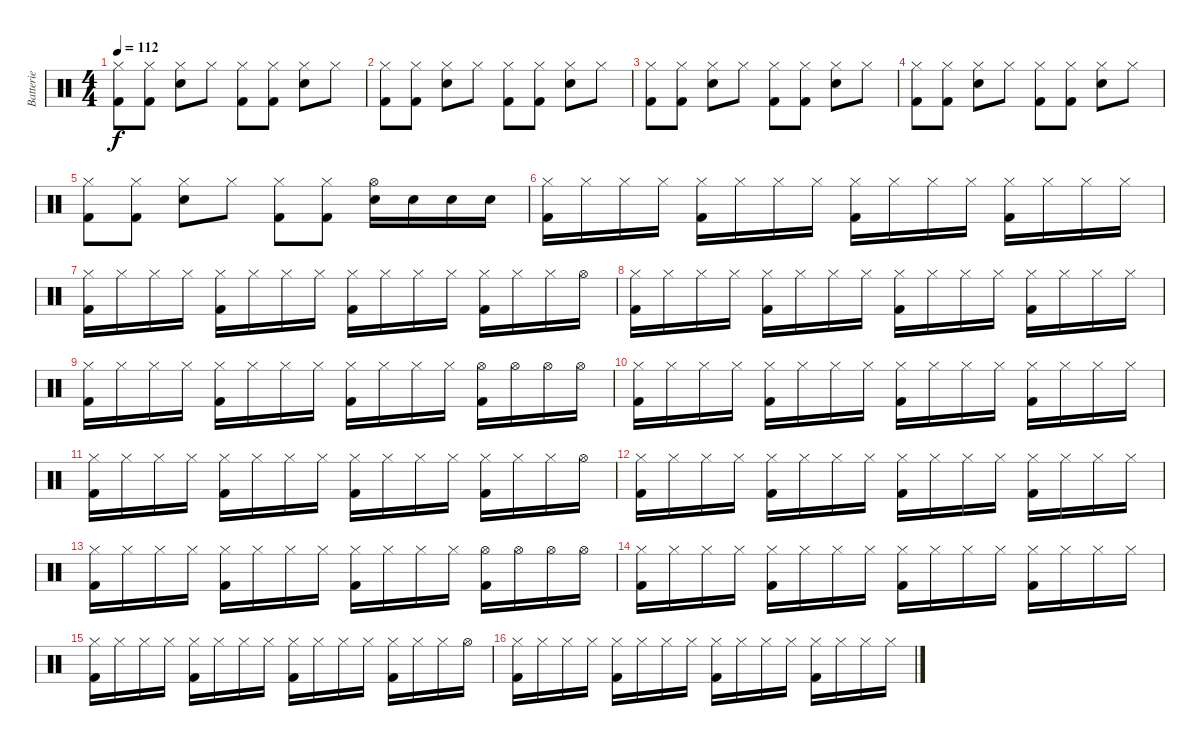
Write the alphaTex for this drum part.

\track ("Batterie" "Batterie") {instrument percussion}
\staff {score}
\articulation defaults
\ts (4 4)
\tempo 112
\clef neutral
\ks c
("Kick (hit) 2" "Hi-Hat (closed)").8{dy f} ("Kick (hit) 2" "Hi-Hat (closed)").8 ("Electric Snare (hit)" "Hi-Hat (closed)").8 "Hi-Hat (closed)".8 ("Kick (hit) 2" "Hi-Hat (closed)").8 ("Kick (hit) 2" "Hi-Hat (closed)").8 ("Electric Snare (hit)" "Hi-Hat (closed)").8 "Hi-Hat (closed)".8 |
("Kick (hit) 2" "Hi-Hat (closed)").8 ("Kick (hit) 2" "Hi-Hat (closed)").8 ("Electric Snare (hit)" "Hi-Hat (closed)").8 "Hi-Hat (closed)".8 ("Kick (hit) 2" "Hi-Hat (closed)").8 ("Kick (hit) 2" "Hi-Hat (closed)").8 ("Electric Snare (hit)" "Hi-Hat (closed)").8 "Hi-Hat (closed)".8 |
("Kick (hit) 2" "Hi-Hat (closed)").8 ("Kick (hit) 2" "Hi-Hat (closed)").8 ("Electric Snare (hit)" "Hi-Hat (closed)").8 "Hi-Hat (closed)".8 ("Kick (hit) 2" "Hi-Hat (closed)").8 ("Kick (hit) 2" "Hi-Hat (closed)").8 ("Electric Snare (hit)" "Hi-Hat (closed)").8 "Hi-Hat (closed)".8 |
("Kick (hit) 2" "Hi-Hat (closed)").8 ("Kick (hit) 2" "Hi-Hat (closed)").8 ("Electric Snare (hit)" "Hi-Hat (closed)").8 "Hi-Hat (closed)".8 ("Kick (hit) 2" "Hi-Hat (closed)").8 ("Kick (hit) 2" "Hi-Hat (closed)").8 ("Electric Snare (hit)" "Hi-Hat (closed)").8 "Hi-Hat (closed)".8 |
("Kick (hit) 2" "Hi-Hat (closed)").8 ("Kick (hit) 2" "Hi-Hat (closed)").8 ("Electric Snare (hit)" "Hi-Hat (closed)").8 "Hi-Hat (closed)".8 ("Kick (hit) 2" "Hi-Hat (closed)").8 ("Kick (hit) 2" "Hi-Hat (closed)").8 ("Electric Snare (hit)" "Hi-Hat (open)").16 "Electric Snare (hit)".16 "Electric Snare (hit)".16 "Electric Snare (hit)".16 |
("Kick (hit) 2" "Hi-Hat (closed)").16 "Hi-Hat (closed)".16 "Hi-Hat (closed)".16 "Hi-Hat (closed)".16 ("Kick (hit) 2" "Hi-Hat (closed)").16 "Hi-Hat (closed)".16 "Hi-Hat (closed)".16 "Hi-Hat (closed)".16 ("Kick (hit) 2" "Hi-Hat (closed)").16 "Hi-Hat (closed)".16 "Hi-Hat (closed)".16 "Hi-Hat (closed)".16 ("Kick (hit) 2" "Hi-Hat (closed)").16 "Hi-Hat (closed)".16 "Hi-Hat (closed)".16 "Hi-Hat (closed)".16 |
("Kick (hit) 2" "Hi-Hat (closed)").16 "Hi-Hat (closed)".16 "Hi-Hat (closed)".16 "Hi-Hat (closed)".16 ("Kick (hit) 2" "Hi-Hat (closed)").16 "Hi-Hat (closed)".16 "Hi-Hat (closed)".16 "Hi-Hat (closed)".16 ("Kick (hit) 2" "Hi-Hat (closed)").16 "Hi-Hat (closed)".16 "Hi-Hat (closed)".16 "Hi-Hat (closed)".16 ("Kick (hit) 2" "Hi-Hat (closed)").16 "Hi-Hat (closed)".16 "Hi-Hat (closed)".16 "Hi-Hat (open)".16 |
("Kick (hit) 2" "Hi-Hat (closed)").16 "Hi-Hat (closed)".16 "Hi-Hat (closed)".16 "Hi-Hat (closed)".16 ("Kick (hit) 2" "Hi-Hat (closed)").16 "Hi-Hat (closed)".16 "Hi-Hat (closed)".16 "Hi-Hat (closed)".16 ("Kick (hit) 2" "Hi-Hat (closed)").16 "Hi-Hat (closed)".16 "Hi-Hat (closed)".16 "Hi-Hat (closed)".16 ("Kick (hit) 2" "Hi-Hat (closed)").16 "Hi-Hat (closed)".16 "Hi-Hat (closed)".16 "Hi-Hat (closed)".16 |
("Kick (hit) 2" "Hi-Hat (closed)").16 "Hi-Hat (closed)".16 "Hi-Hat (closed)".16 "Hi-Hat (closed)".16 ("Kick (hit) 2" "Hi-Hat (closed)").16 "Hi-Hat (closed)".16 "Hi-Hat (closed)".16 "Hi-Hat (closed)".16 ("Kick (hit) 2" "Hi-Hat (closed)").16 "Hi-Hat (closed)".16 "Hi-Hat (closed)".16 "Hi-Hat (closed)".16 ("Kick (hit) 2" "Hi-Hat (open)").16 "Hi-Hat (open)".16 "Hi-Hat (open)".16 "Hi-Hat (open)".16 |
("Kick (hit) 2" "Hi-Hat (closed)").16 "Hi-Hat (closed)".16 "Hi-Hat (closed)".16 "Hi-Hat (closed)".16 ("Kick (hit) 2" "Hi-Hat (closed)").16 "Hi-Hat (closed)".16 "Hi-Hat (closed)".16 "Hi-Hat (closed)".16 ("Kick (hit) 2" "Hi-Hat (closed)").16 "Hi-Hat (closed)".16 "Hi-Hat (closed)".16 "Hi-Hat (closed)".16 ("Kick (hit) 2" "Hi-Hat (closed)").16 "Hi-Hat (closed)".16 "Hi-Hat (closed)".16 "Hi-Hat (closed)".16 |
("Kick (hit) 2" "Hi-Hat (closed)").16 "Hi-Hat (closed)".16 "Hi-Hat (closed)".16 "Hi-Hat (closed)".16 ("Kick (hit) 2" "Hi-Hat (closed)").16 "Hi-Hat (closed)".16 "Hi-Hat (closed)".16 "Hi-Hat (closed)".16 ("Kick (hit) 2" "Hi-Hat (closed)").16 "Hi-Hat (closed)".16 "Hi-Hat (closed)".16 "Hi-Hat (closed)".16 ("Kick (hit) 2" "Hi-Hat (closed)").16 "Hi-Hat (closed)".16 "Hi-Hat (closed)".16 "Hi-Hat (open)".16 |
("Kick (hit) 2" "Hi-Hat (closed)").16 "Hi-Hat (closed)".16 "Hi-Hat (closed)".16 "Hi-Hat (closed)".16 ("Kick (hit) 2" "Hi-Hat (closed)").16 "Hi-Hat (closed)".16 "Hi-Hat (closed)".16 "Hi-Hat (closed)".16 ("Kick (hit) 2" "Hi-Hat (closed)").16 "Hi-Hat (closed)".16 "Hi-Hat (closed)".16 "Hi-Hat (closed)".16 ("Kick (hit) 2" "Hi-Hat (closed)").16 "Hi-Hat (closed)".16 "Hi-Hat (closed)".16 "Hi-Hat (closed)".16 |
("Kick (hit) 2" "Hi-Hat (closed)").16 "Hi-Hat (closed)".16 "Hi-Hat (closed)".16 "Hi-Hat (closed)".16 ("Kick (hit) 2" "Hi-Hat (closed)").16 "Hi-Hat (closed)".16 "Hi-Hat (closed)".16 "Hi-Hat (closed)".16 ("Kick (hit) 2" "Hi-Hat (closed)").16 "Hi-Hat (closed)".16 "Hi-Hat (closed)".16 "Hi-Hat (closed)".16 ("Kick (hit) 2" "Hi-Hat (open)").16 "Hi-Hat (open)".16 "Hi-Hat (open)".16 "Hi-Hat (open)".16 |
("Kick (hit) 2" "Hi-Hat (closed)").16 "Hi-Hat (closed)".16 "Hi-Hat (closed)".16 "Hi-Hat (closed)".16 ("Kick (hit) 2" "Hi-Hat (closed)").16 "Hi-Hat (closed)".16 "Hi-Hat (closed)".16 "Hi-Hat (closed)".16 ("Kick (hit) 2" "Hi-Hat (closed)").16 "Hi-Hat (closed)".16 "Hi-Hat (closed)".16 "Hi-Hat (closed)".16 ("Kick (hit) 2" "Hi-Hat (closed)").16 "Hi-Hat (closed)".16 "Hi-Hat (closed)".16 "Hi-Hat (closed)".16 |
("Kick (hit) 2" "Hi-Hat (closed)").16 "Hi-Hat (closed)".16 "Hi-Hat (closed)".16 "Hi-Hat (closed)".16 ("Kick (hit) 2" "Hi-Hat (closed)").16 "Hi-Hat (closed)".16 "Hi-Hat (closed)".16 "Hi-Hat (closed)".16 ("Kick (hit) 2" "Hi-Hat (closed)").16 "Hi-Hat (closed)".16 "Hi-Hat (closed)".16 "Hi-Hat (closed)".16 ("Kick (hit) 2" "Hi-Hat (closed)").16 "Hi-Hat (closed)".16 "Hi-Hat (closed)".16 "Hi-Hat (open)".16 |
("Kick (hit) 2" "Hi-Hat (closed)").16 "Hi-Hat (closed)".16 "Hi-Hat (closed)".16 "Hi-Hat (closed)".16 ("Kick (hit) 2" "Hi-Hat (closed)").16 "Hi-Hat (closed)".16 "Hi-Hat (closed)".16 "Hi-Hat (closed)".16 ("Kick (hit) 2" "Hi-Hat (closed)").16 "Hi-Hat (closed)".16 "Hi-Hat (closed)".16 "Hi-Hat (closed)".16 ("Kick (hit) 2" "Hi-Hat (closed)").16 "Hi-Hat (closed)".16 "Hi-Hat (closed)".16 "Hi-Hat (closed)".16
